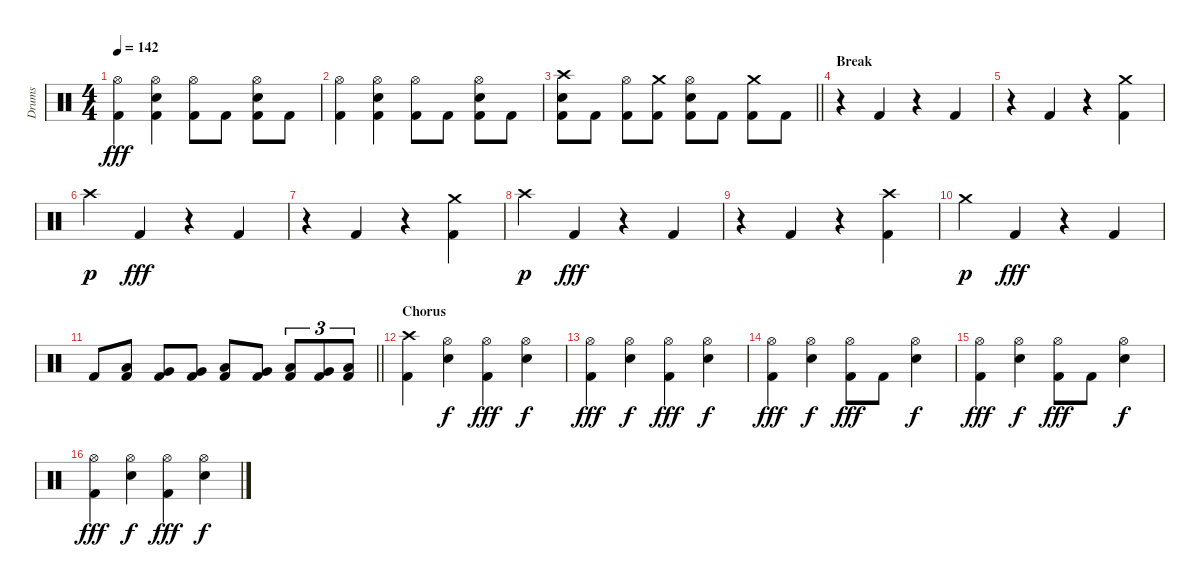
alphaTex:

\track ("Drums" "Drums") {instrument percussion}
\staff {score}
\articulation defaults
\ts (4 4)
\tempo 142
\clef neutral
\ks c
("Hi-Hat (open)" "Kick (hit) 2").4{dy fff} ("Hi-Hat (open)" "Snare (hit) 2" "Kick (hit) 2").4 ("Hi-Hat (open)" "Kick (hit) 2").8 "Kick (hit) 2".8 ("Hi-Hat (open)" "Snare (hit) 2" "Kick (hit) 2").8 "Kick (hit) 2".8 |
("Hi-Hat (open)" "Kick (hit) 2").4 ("Hi-Hat (open)" "Snare (hit) 2" "Kick (hit) 2").4 ("Hi-Hat (open)" "Kick (hit) 2").8 "Kick (hit) 2".8 ("Hi-Hat (open)" "Snare (hit) 2" "Kick (hit) 2").8 "Kick (hit) 2".8 |
\barLineRight lightlight
("Crash high (hit)" "Snare (hit) 2" "Kick (hit) 2").8 "Kick (hit) 2".8 ("Hi-Hat (open)" "Kick (hit) 2").8 ("Crash medium (hit)" "Kick (hit) 2").8 ("Hi-Hat (open)" "Snare (hit) 2" "Kick (hit) 2").8 "Kick (hit) 2".8 ("Crash medium (hit)" "Kick (hit) 2").8 "Kick (hit) 2".8 |
\section ("" "Break")
r.4 "Kick (hit) 2".4 r.4 "Kick (hit) 2".4 |
r.4 "Kick (hit) 2".4 r.4 ("Crash medium (hit)" "Kick (hit) 2").4 |
"Crash high (hit)".4{dy p} "Kick (hit) 2".4{dy fff} r.4 "Kick (hit) 2".4 |
r.4 "Kick (hit) 2".4 r.4 ("Crash medium (hit)" "Kick (hit) 2").4 |
"Crash high (hit)".4{dy p} "Kick (hit) 2".4{dy fff} r.4 "Kick (hit) 2".4 |
r.4 "Kick (hit) 2".4 r.4 ("Crash high (hit)" "Kick (hit) 2").4 |
"Crash medium (hit)".4{dy p} "Kick (hit) 2".4{dy fff} r.4 "Kick (hit) 2".4 |
\barLineRight lightlight "Kick (hit) 2".8
("Low Tom (hit)" "Kick (hit) 2").8 ("Very Low Tom (hit)" "Kick (hit) 2").8 ("Very Low Tom (hit)" "Kick (hit) 2").8 ("Low Tom (hit)" "Kick (hit) 2").8 ("Very Low Tom (hit)" "Kick (hit) 2").8 ("Low Tom (hit)" "Kick (hit) 2").8{tu (3 2)} ("Very Low Tom (hit)" "Kick (hit) 2").8{tu (3 2)} ("Low Floor Tom (hit)" "Kick (hit) 2").8{tu (3 2)} |
\section ("" "Chorus")
("Crash high (hit)" "Kick (hit) 2").4 ("Hi-Hat (open)" "Snare (hit) 2").4{dy f} ("Hi-Hat (open)" "Kick (hit) 2").4{dy fff} ("Hi-Hat (open)" "Snare (hit) 2").4{dy f} |
("Hi-Hat (open)" "Kick (hit) 2").4{dy fff} ("Hi-Hat (open)" "Snare (hit) 2").4{dy f} ("Hi-Hat (open)" "Kick (hit) 2").4{dy fff} ("Hi-Hat (open)" "Snare (hit) 2").4{dy f} |
("Hi-Hat (open)" "Kick (hit) 2").4{dy fff} ("Hi-Hat (open)" "Snare (hit) 2").4{dy f} ("Hi-Hat (open)" "Kick (hit) 2").8{dy fff} "Kick (hit) 2".8 ("Hi-Hat (open)" "Snare (hit) 2").4{dy f} |
("Hi-Hat (open)" "Kick (hit) 2").4{dy fff} ("Hi-Hat (open)" "Snare (hit) 2").4{dy f} ("Hi-Hat (open)" "Kick (hit) 2").8{dy fff} "Kick (hit) 2".8 ("Hi-Hat (open)" "Snare (hit) 2").4{dy f} |
("Hi-Hat (open)" "Kick (hit) 2").4{dy fff} ("Hi-Hat (open)" "Snare (hit) 2").4{dy f} ("Hi-Hat (open)" "Kick (hit) 2").4{dy fff} ("Hi-Hat (open)" "Snare (hit) 2").4{dy f}
